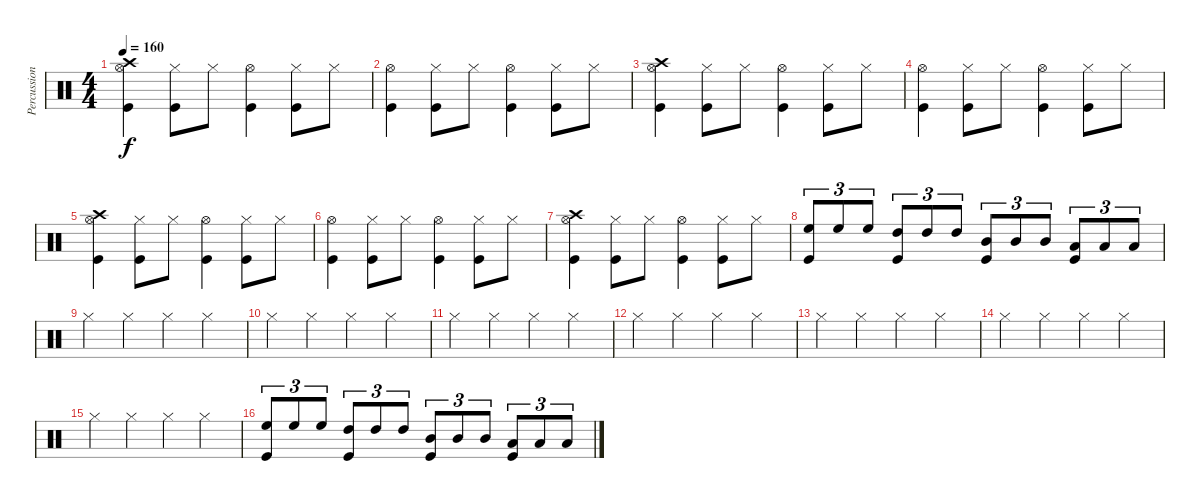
\track ("Percussion" "Percussion") {instrument percussion}
\staff {score}
\articulation defaults
\ts (4 4)
\tempo 160
\clef neutral
\ks c
("Hi-Hat (open)" "Crash high (hit)" "Kick (hit)").4{dy f} ("Hi-Hat (closed)" "Kick (hit)").8 "Hi-Hat (closed)".8 ("Hi-Hat (open)" "Kick (hit)").4 ("Hi-Hat (closed)" "Kick (hit)").8 "Hi-Hat (closed)".8 |
("Hi-Hat (open)" "Kick (hit)").4 ("Hi-Hat (closed)" "Kick (hit)").8 "Hi-Hat (closed)".8 ("Hi-Hat (open)" "Kick (hit)").4 ("Hi-Hat (closed)" "Kick (hit)").8 "Hi-Hat (closed)".8 |
("Hi-Hat (open)" "Crash high (hit)" "Kick (hit)").4 ("Hi-Hat (closed)" "Kick (hit)").8 "Hi-Hat (closed)".8 ("Hi-Hat (open)" "Kick (hit)").4 ("Hi-Hat (closed)" "Kick (hit)").8 "Hi-Hat (closed)".8 |
("Hi-Hat (open)" "Kick (hit)").4 ("Hi-Hat (closed)" "Kick (hit)").8 "Hi-Hat (closed)".8 ("Hi-Hat (open)" "Kick (hit)").4 ("Hi-Hat (closed)" "Kick (hit)").8 "Hi-Hat (closed)".8 |
("Hi-Hat (open)" "Crash high (hit)" "Kick (hit)").4 ("Hi-Hat (closed)" "Kick (hit)").8 "Hi-Hat (closed)".8 ("Hi-Hat (open)" "Kick (hit)").4 ("Hi-Hat (closed)" "Kick (hit)").8 "Hi-Hat (closed)".8 |
("Hi-Hat (open)" "Kick (hit)").4 ("Hi-Hat (closed)" "Kick (hit)").8 "Hi-Hat (closed)".8 ("Hi-Hat (open)" "Kick (hit)").4 ("Hi-Hat (closed)" "Kick (hit)").8 "Hi-Hat (closed)".8 |
("Hi-Hat (open)" "Crash high (hit)" "Kick (hit)").4 ("Hi-Hat (closed)" "Kick (hit)").8 "Hi-Hat (closed)".8 ("Hi-Hat (open)" "Kick (hit)").4 ("Hi-Hat (closed)" "Kick (hit)").8 "Hi-Hat (closed)".8 |
("High Floor Tom (hit)" "Kick (hit)").8{tu (3 2)} "High Floor Tom (hit)".8{tu (3 2)} "High Floor Tom (hit)".8{tu (3 2)} ("High Tom (hit)" "Kick (hit)").8{tu (3 2)} "High Tom (hit)".8{tu (3 2)} "High Tom (hit)".8{tu (3 2)} ("Mid Tom (hit)" "Kick (hit)").8{tu (3 2)} "Mid Tom (hit)".8{tu (3 2)} "Mid Tom (hit)".8{tu (3 2)} ("Low Tom (hit)" "Kick (hit)").8{tu (3 2)} "Low Tom (hit)".8{tu (3 2)} "Low Tom (hit)".8{tu (3 2)} |
"Hi-Hat (closed)".4 "Hi-Hat (closed)".4 "Hi-Hat (closed)".4 "Hi-Hat (closed)".4 |
"Hi-Hat (closed)".4 "Hi-Hat (closed)".4 "Hi-Hat (closed)".4 "Hi-Hat (closed)".4 |
"Hi-Hat (closed)".4 "Hi-Hat (closed)".4 "Hi-Hat (closed)".4 "Hi-Hat (closed)".4 |
"Hi-Hat (closed)".4 "Hi-Hat (closed)".4 "Hi-Hat (closed)".4 "Hi-Hat (closed)".4 |
"Hi-Hat (closed)".4 "Hi-Hat (closed)".4 "Hi-Hat (closed)".4 "Hi-Hat (closed)".4 |
"Hi-Hat (closed)".4 "Hi-Hat (closed)".4 "Hi-Hat (closed)".4 "Hi-Hat (closed)".4 |
"Hi-Hat (closed)".4 "Hi-Hat (closed)".4 "Hi-Hat (closed)".4 "Hi-Hat (closed)".4 |
("High Floor Tom (hit)" "Kick (hit)").8{tu (3 2)} "High Floor Tom (hit)".8{tu (3 2)} "High Floor Tom (hit)".8{tu (3 2)} ("High Tom (hit)" "Kick (hit)").8{tu (3 2)} "High Tom (hit)".8{tu (3 2)} "High Tom (hit)".8{tu (3 2)} ("Mid Tom (hit)" "Kick (hit)").8{tu (3 2)} "Mid Tom (hit)".8{tu (3 2)} "Mid Tom (hit)".8{tu (3 2)} ("Low Tom (hit)" "Kick (hit)").8{tu (3 2)} "Low Tom (hit)".8{tu (3 2)} "Low Tom (hit)".8{tu (3 2)}
